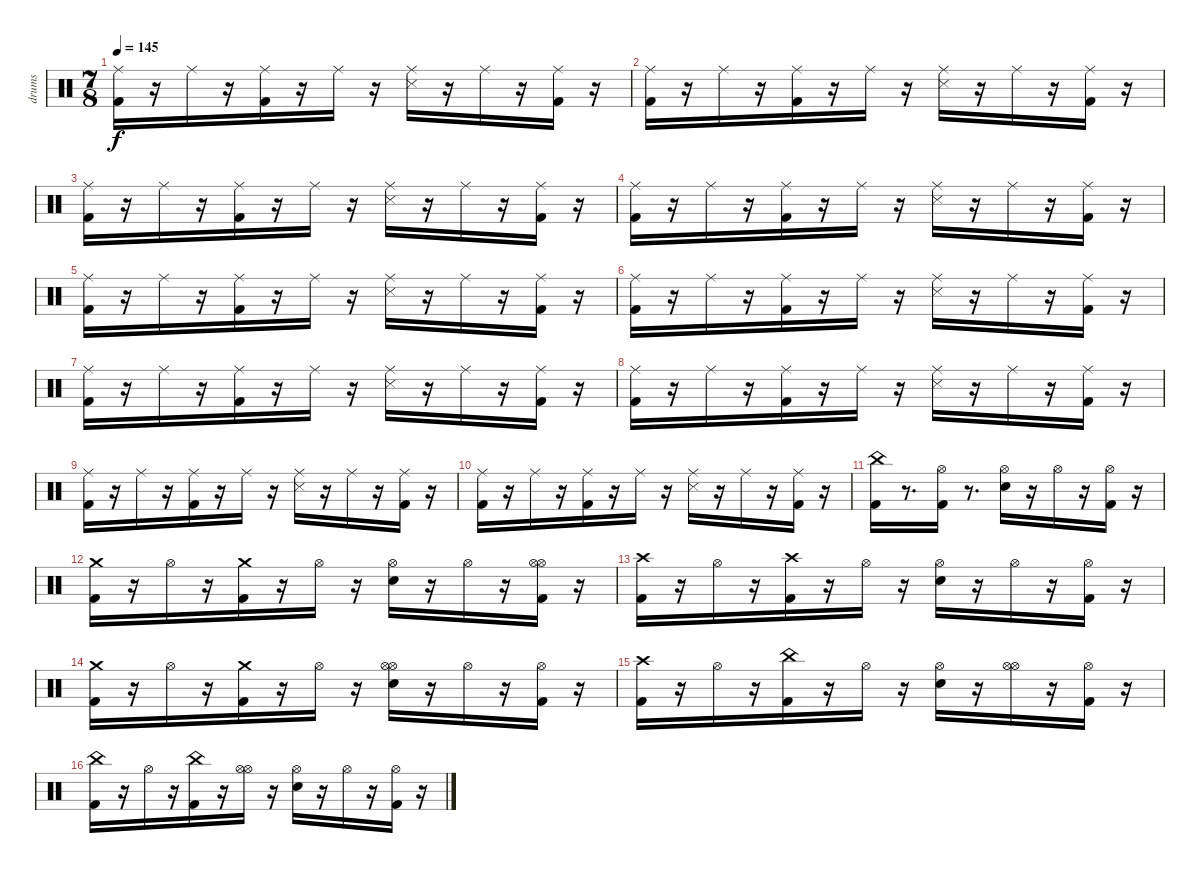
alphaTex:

\track ("drums" "drums") {instrument percussion}
\staff {score}
\articulation defaults
\ts (7 8)
\tempo 145
\clef neutral
\ks c
("Kick (hit) 2" "Ride (middle)").16{dy f} r.16 "Ride (middle)".16 r.16 ("Kick (hit) 2" "Ride (middle)").16 r.16 "Ride (middle)".16 r.16 ("Snare (side stick) 3" "Ride (middle)").16 r.16 "Ride (middle)".16 r.16 ("Kick (hit) 2" "Ride (middle)").16 r.16 |
("Kick (hit) 2" "Ride (middle)").16 r.16 "Ride (middle)".16 r.16 ("Kick (hit) 2" "Ride (middle)").16 r.16 "Ride (middle)".16 r.16 ("Snare (side stick) 3" "Ride (middle)").16 r.16 "Ride (middle)".16 r.16 ("Kick (hit) 2" "Ride (middle)").16 r.16 |
("Kick (hit) 2" "Ride (middle)").16 r.16 "Ride (middle)".16 r.16 ("Kick (hit) 2" "Ride (middle)").16 r.16 "Ride (middle)".16 r.16 ("Snare (side stick) 3" "Ride (middle)").16 r.16 "Ride (middle)".16 r.16 ("Kick (hit) 2" "Ride (middle)").16 r.16 |
("Kick (hit) 2" "Ride (middle)").16 r.16 "Ride (middle)".16 r.16 ("Kick (hit) 2" "Ride (middle)").16 r.16 "Ride (middle)".16 r.16 ("Snare (side stick) 3" "Ride (middle)").16 r.16 "Ride (middle)".16 r.16 ("Kick (hit) 2" "Ride (middle)").16 r.16 |
("Kick (hit) 2" "Ride (middle)").16 r.16 "Ride (middle)".16 r.16 ("Kick (hit) 2" "Ride (middle)").16 r.16 "Ride (middle)".16 r.16 ("Snare (side stick) 3" "Ride (middle)").16 r.16 "Ride (middle)".16 r.16 ("Kick (hit) 2" "Ride (middle)").16 r.16 |
("Kick (hit) 2" "Ride (middle)").16 r.16 "Ride (middle)".16 r.16 ("Kick (hit) 2" "Ride (middle)").16 r.16 "Ride (middle)".16 r.16 ("Snare (side stick) 3" "Ride (middle)").16 r.16 "Ride (middle)".16 r.16 ("Kick (hit) 2" "Ride (middle)").16 r.16 |
("Kick (hit) 2" "Ride (middle)").16 r.16 "Ride (middle)".16 r.16 ("Kick (hit) 2" "Ride (middle)").16 r.16 "Ride (middle)".16 r.16 ("Snare (side stick) 3" "Ride (middle)").16 r.16 "Ride (middle)".16 r.16 ("Kick (hit) 2" "Ride (middle)").16 r.16 |
("Kick (hit) 2" "Ride (middle)").16 r.16 "Ride (middle)".16 r.16 ("Kick (hit) 2" "Ride (middle)").16 r.16 "Ride (middle)".16 r.16 ("Snare (side stick) 3" "Ride (middle)").16 r.16 "Ride (middle)".16 r.16 ("Kick (hit) 2" "Ride (middle)").16 r.16 |
("Kick (hit) 2" "Ride (middle)").16 r.16 "Ride (middle)".16 r.16 ("Kick (hit) 2" "Ride (middle)").16 r.16 "Ride (middle)".16 r.16 ("Snare (side stick) 3" "Ride (middle)").16 r.16 "Ride (middle)".16 r.16 ("Kick (hit) 2" "Ride (middle)").16 r.16 |
("Kick (hit) 2" "Ride (middle)").16 r.16 "Ride (middle)".16 r.16 ("Kick (hit) 2" "Ride (middle)").16 r.16 "Ride (middle)".16 r.16 ("Snare (side stick) 3" "Ride (middle)").16 r.16 "Ride (middle)".16 r.16 ("Kick (hit) 2" "Ride (middle)").16 r.16 |
("Kick (hit) 2" "China (hit)").16 r.8{d} ("Kick (hit) 2" "Hi-Hat (open)").16 r.8{d} ("Snare (hit) 2" "Hi-Hat (open)").16 r.16 "Hi-Hat (open)".16 r.16 ("Kick (hit) 2" "Hi-Hat (open)").16 r.16 |
("Kick (hit) 2" "Crash medium (hit)").16 r.16 "Hi-Hat (open)".16 r.16 ("Kick (hit) 2" "Crash medium (hit)").16 r.16 "Hi-Hat (open)".16 r.16 ("Snare (hit) 2" "Hi-Hat (open)").16 r.16 "Hi-Hat (open)".16 r.16 ("Kick (hit) 2" "Hi-Hat (open)" "Hi-Hat (open)").16 r.16 |
("Kick (hit) 2" "Crash high (hit)").16 r.16 "Hi-Hat (open)".16 r.16 ("Kick (hit) 2" "Crash high (hit)").16 r.16 "Hi-Hat (open)".16 r.16 ("Snare (hit) 2" "Hi-Hat (open)").16 r.16 "Hi-Hat (open)".16 r.16 ("Kick (hit) 2" "Hi-Hat (open)").16 r.16 |
("Kick (hit) 2" "Crash medium (hit)").16 r.16 "Hi-Hat (open)".16 r.16 ("Kick (hit) 2" "Crash medium (hit)").16 r.16 "Hi-Hat (open)".16 r.16 ("Snare (hit) 2" "Hi-Hat (open)" "Hi-Hat (open)").16 r.16 "Hi-Hat (open)".16 r.16 ("Kick (hit) 2" "Hi-Hat (open)").16 r.16 |
("Kick (hit) 2" "Crash high (hit)").16 r.16 "Hi-Hat (open)".16 r.16 ("Kick (hit) 2" "China (hit)").16 r.16 "Hi-Hat (open)".16 r.16 ("Snare (hit) 2" "Hi-Hat (open)").16 r.16 ("Hi-Hat (open)" "Hi-Hat (open)").16 r.16 ("Kick (hit) 2" "Hi-Hat (open)").16 r.16 |
("Kick (hit) 2" "China (hit)").16 r.16 "Hi-Hat (open)".16 r.16 ("Kick (hit) 2" "China (hit)").16 r.16 ("Hi-Hat (open)" "Hi-Hat (open)").16 r.16 ("Snare (hit) 2" "Hi-Hat (open)").16 r.16 "Hi-Hat (open)".16 r.16 ("Kick (hit) 2" "Hi-Hat (open)").16 r.16
